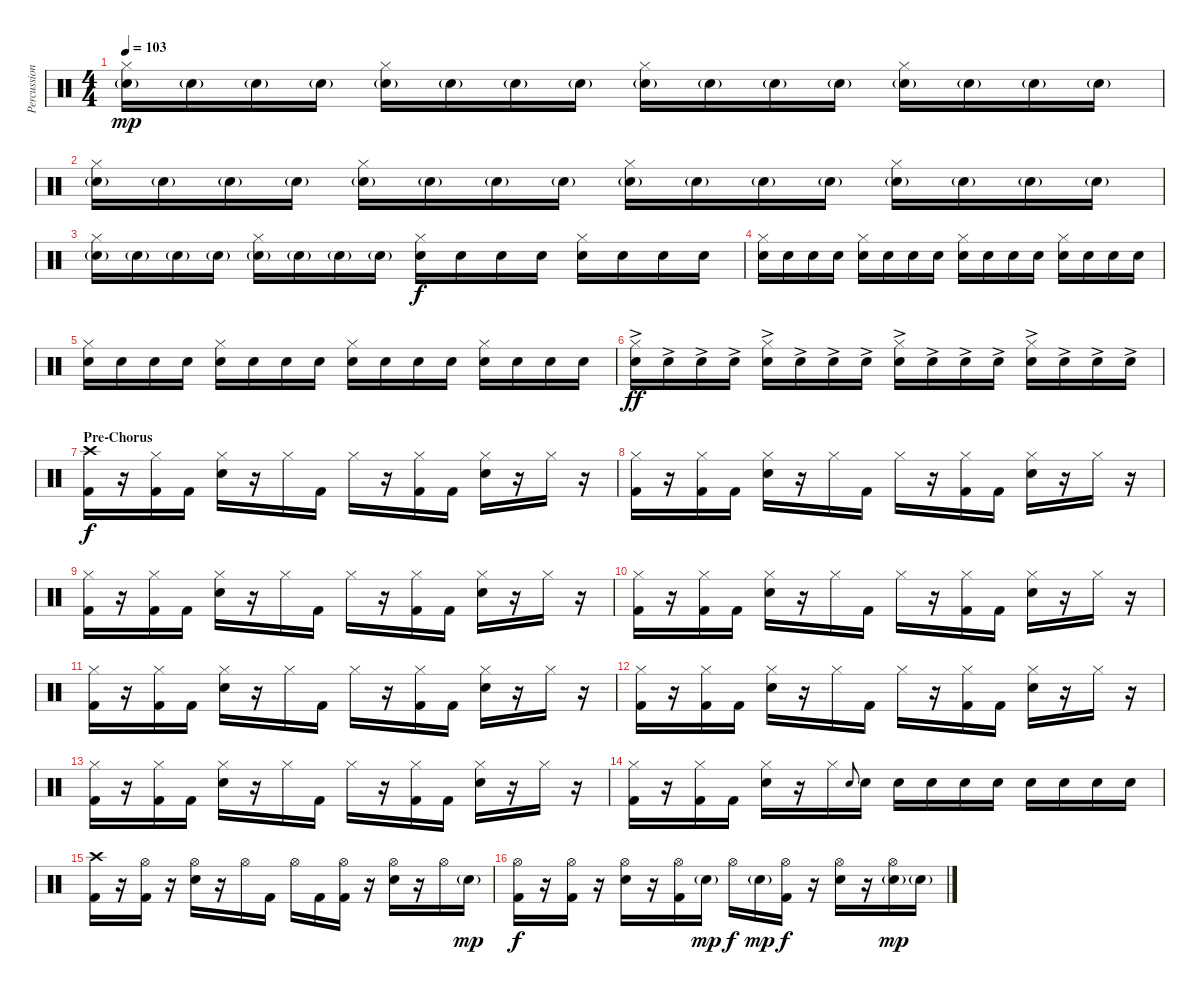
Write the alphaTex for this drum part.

\track ("Percussion" "Percussion") {instrument percussion}
\staff {score}
\articulation defaults
\ts (4 4)
\tempo 103
\clef neutral
\ks c
("Hi-Hat (closed)" "Snare (hit) 2"{g}).16{dy mp} "Snare (hit) 2"{g}.16 "Snare (hit) 2"{g}.16 "Snare (hit) 2"{g}.16 ("Hi-Hat (closed)" "Snare (hit) 2"{g}).16 "Snare (hit) 2"{g}.16 "Snare (hit) 2"{g}.16 "Snare (hit) 2"{g}.16 ("Hi-Hat (closed)" "Snare (hit) 2"{g}).16 "Snare (hit) 2"{g}.16 "Snare (hit) 2"{g}.16 "Snare (hit) 2"{g}.16 ("Hi-Hat (closed)" "Snare (hit) 2"{g}).16 "Snare (hit) 2"{g}.16 "Snare (hit) 2"{g}.16 "Snare (hit) 2"{g}.16 |
("Hi-Hat (closed)" "Snare (hit) 2"{g}).16 "Snare (hit) 2"{g}.16 "Snare (hit) 2"{g}.16 "Snare (hit) 2"{g}.16 ("Hi-Hat (closed)" "Snare (hit) 2"{g}).16 "Snare (hit) 2"{g}.16 "Snare (hit) 2"{g}.16 "Snare (hit) 2"{g}.16 ("Hi-Hat (closed)" "Snare (hit) 2"{g}).16 "Snare (hit) 2"{g}.16 "Snare (hit) 2"{g}.16 "Snare (hit) 2"{g}.16 ("Hi-Hat (closed)" "Snare (hit) 2"{g}).16 "Snare (hit) 2"{g}.16 "Snare (hit) 2"{g}.16 "Snare (hit) 2"{g}.16{volume 8} |
("Hi-Hat (closed)" "Snare (hit) 2"{g}).16{volume 13} "Snare (hit) 2"{g}.16 "Snare (hit) 2"{g}.16 "Snare (hit) 2"{g}.16 ("Hi-Hat (closed)" "Snare (hit) 2"{g}).16 "Snare (hit) 2"{g}.16 "Snare (hit) 2"{g}.16 "Snare (hit) 2"{g}.16 ("Hi-Hat (closed)" "Snare (hit) 2").16{dy f} "Snare (hit) 2".16 "Snare (hit) 2".16 "Snare (hit) 2".16 ("Hi-Hat (closed)" "Snare (hit) 2").16 "Snare (hit) 2".16 "Snare (hit) 2".16 "Snare (hit) 2".16 |
("Hi-Hat (closed)" "Snare (hit) 2").16 "Snare (hit) 2".16 "Snare (hit) 2".16 "Snare (hit) 2".16 ("Hi-Hat (closed)" "Snare (hit) 2").16 "Snare (hit) 2".16 "Snare (hit) 2".16 "Snare (hit) 2".16 ("Hi-Hat (closed)" "Snare (hit) 2").16 "Snare (hit) 2".16 "Snare (hit) 2".16 "Snare (hit) 2".16 ("Hi-Hat (closed)" "Snare (hit) 2").16 "Snare (hit) 2".16 "Snare (hit) 2".16 "Snare (hit) 2".16 |
("Hi-Hat (closed)" "Snare (hit) 2").16 "Snare (hit) 2".16 "Snare (hit) 2".16 "Snare (hit) 2".16 ("Hi-Hat (closed)" "Snare (hit) 2").16 "Snare (hit) 2".16 "Snare (hit) 2".16 "Snare (hit) 2".16 ("Hi-Hat (closed)" "Snare (hit) 2").16 "Snare (hit) 2".16 "Snare (hit) 2".16 "Snare (hit) 2".16 ("Hi-Hat (closed)" "Snare (hit) 2").16 "Snare (hit) 2".16 "Snare (hit) 2".16 "Snare (hit) 2".16 |
("Hi-Hat (closed)" "Snare (hit) 2"{ac}).16{dy ff} "Snare (hit) 2"{ac}.16 "Snare (hit) 2"{ac}.16 "Snare (hit) 2"{ac}.16 ("Hi-Hat (closed)" "Snare (hit) 2"{ac}).16 "Snare (hit) 2"{ac}.16 "Snare (hit) 2"{ac}.16 "Snare (hit) 2"{ac}.16 ("Hi-Hat (closed)" "Snare (hit) 2"{ac}).16 "Snare (hit) 2"{ac}.16 "Snare (hit) 2"{ac}.16 "Snare (hit) 2"{ac}.16 ("Hi-Hat (closed)" "Snare (hit) 2"{ac}).16 "Snare (hit) 2"{ac}.16 "Snare (hit) 2"{ac}.16 "Snare (hit) 2"{ac}.16 |
\section ("" "Pre-Chorus")
("Crash high (hit)" "Kick (hit) 2").16{dy f} r.16 ("Hi-Hat (closed)" "Kick (hit) 2").16 "Kick (hit) 2".16 ("Hi-Hat (closed)" "Snare (hit) 2").16 r.16 "Hi-Hat (closed)".16 "Kick (hit) 2".16 "Hi-Hat (closed)".16 r.16 ("Hi-Hat (closed)" "Kick (hit) 2").16 "Kick (hit) 2".16 ("Hi-Hat (closed)" "Snare (hit) 2").16 r.16 "Hi-Hat (closed)".16 r.16 |
("Hi-Hat (closed)" "Kick (hit) 2").16 r.16 ("Hi-Hat (closed)" "Kick (hit) 2").16 "Kick (hit) 2".16 ("Hi-Hat (closed)" "Snare (hit) 2").16 r.16 "Hi-Hat (closed)".16 "Kick (hit) 2".16 "Hi-Hat (closed)".16 r.16 ("Hi-Hat (closed)" "Kick (hit) 2").16 "Kick (hit) 2".16 ("Hi-Hat (closed)" "Snare (hit) 2").16 r.16 "Hi-Hat (closed)".16 r.16 |
("Hi-Hat (closed)" "Kick (hit) 2").16 r.16 ("Hi-Hat (closed)" "Kick (hit) 2").16 "Kick (hit) 2".16 ("Hi-Hat (closed)" "Snare (hit) 2").16 r.16 "Hi-Hat (closed)".16 "Kick (hit) 2".16 "Hi-Hat (closed)".16 r.16 ("Hi-Hat (closed)" "Kick (hit) 2").16 "Kick (hit) 2".16 ("Hi-Hat (closed)" "Snare (hit) 2").16 r.16 "Hi-Hat (closed)".16 r.16 |
("Hi-Hat (closed)" "Kick (hit) 2").16 r.16 ("Hi-Hat (closed)" "Kick (hit) 2").16 "Kick (hit) 2".16 ("Hi-Hat (closed)" "Snare (hit) 2").16 r.16 "Hi-Hat (closed)".16 "Kick (hit) 2".16 "Hi-Hat (closed)".16 r.16 ("Hi-Hat (closed)" "Kick (hit) 2").16 "Kick (hit) 2".16 ("Hi-Hat (closed)" "Snare (hit) 2").16 r.16 "Hi-Hat (closed)".16 r.16 |
("Hi-Hat (closed)" "Kick (hit) 2").16 r.16 ("Hi-Hat (closed)" "Kick (hit) 2").16 "Kick (hit) 2".16 ("Hi-Hat (closed)" "Snare (hit) 2").16 r.16 "Hi-Hat (closed)".16 "Kick (hit) 2".16 "Hi-Hat (closed)".16 r.16 ("Hi-Hat (closed)" "Kick (hit) 2").16 "Kick (hit) 2".16 ("Hi-Hat (closed)" "Snare (hit) 2").16 r.16 "Hi-Hat (closed)".16 r.16 |
("Hi-Hat (closed)" "Kick (hit) 2").16 r.16 ("Hi-Hat (closed)" "Kick (hit) 2").16 "Kick (hit) 2".16 ("Hi-Hat (closed)" "Snare (hit) 2").16 r.16 "Hi-Hat (closed)".16 "Kick (hit) 2".16 "Hi-Hat (closed)".16 r.16 ("Hi-Hat (closed)" "Kick (hit) 2").16 "Kick (hit) 2".16 ("Hi-Hat (closed)" "Snare (hit) 2").16 r.16 "Hi-Hat (closed)".16 r.16 |
("Hi-Hat (closed)" "Kick (hit) 2").16 r.16 ("Hi-Hat (closed)" "Kick (hit) 2").16 "Kick (hit) 2".16 ("Hi-Hat (closed)" "Snare (hit) 2").16 r.16 "Hi-Hat (closed)".16 "Kick (hit) 2".16 "Hi-Hat (closed)".16 r.16 ("Hi-Hat (closed)" "Kick (hit) 2").16 "Kick (hit) 2".16 ("Hi-Hat (closed)" "Snare (hit) 2").16 r.16 "Hi-Hat (closed)".16 r.16 |
("Hi-Hat (closed)" "Kick (hit) 2").16 r.16 ("Hi-Hat (closed)" "Kick (hit) 2").16 "Kick (hit) 2".16 ("Hi-Hat (closed)" "Snare (hit) 2").16 r.16 "Hi-Hat (closed)".16 "Snare (hit) 2".8{gr onbeat} "Snare (hit) 2".16 "Snare (hit) 2".16 "Snare (hit) 2".16 "Snare (hit) 2".16 "Snare (hit) 2".16 "Snare (hit) 2".16 "Snare (hit) 2".16 "Snare (hit) 2".16 "Snare (hit) 2".16 |
("Crash high (hit)" "Kick (hit) 2").16 r.16 ("Hi-Hat (open)" "Kick (hit) 2").16 r.16 ("Hi-Hat (open)" "Snare (hit) 2").16 r.16 "Hi-Hat (open)".16 "Kick (hit) 2".16 "Hi-Hat (open)".16 "Kick (hit) 2".16 ("Hi-Hat (open)" "Kick (hit) 2").16 r.16 ("Hi-Hat (open)" "Snare (hit) 2").16 r.16 "Hi-Hat (open)".16 "Snare (hit) 2"{g}.16{dy mp} |
("Hi-Hat (open)" "Kick (hit) 2").16{dy f} r.16 ("Hi-Hat (open)" "Kick (hit) 2").16 r.16 ("Hi-Hat (open)" "Snare (hit) 2").16 r.16 ("Hi-Hat (open)" "Kick (hit) 2").16 "Snare (hit) 2"{g}.16{dy mp} "Hi-Hat (open)".16{dy f} "Snare (hit) 2"{g}.16{dy mp} ("Hi-Hat (open)" "Kick (hit) 2").16{dy f} r.16 ("Hi-Hat (open)" "Snare (hit) 2").16 r.16 ("Hi-Hat (open)" "Snare (hit) 2"{g}).16{dy mp} "Snare (hit) 2"{g}.16
